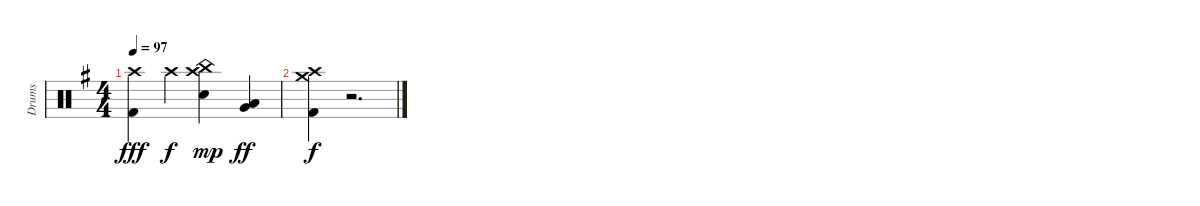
\track ("Drums" "Drums") {instrument percussion}
\staff {score}
\articulation defaults
\ts (4 4)
\tempo 97
\clef neutral
\ks eminor
("Crash high (hit)" "Kick (hit) 2").4{dy fff} "Crash high (hit)".4{dy f} ("Crash high (hit)" "China (hit)" "Snare (hit) 2").4{dy mp} ("Low Tom (hit)" "Very Low Tom (hit)").4{dy ff} |
("Crash high (hit)" "Crash medium (hit)" "Kick (hit) 2").4{dy f} r.2{d}
